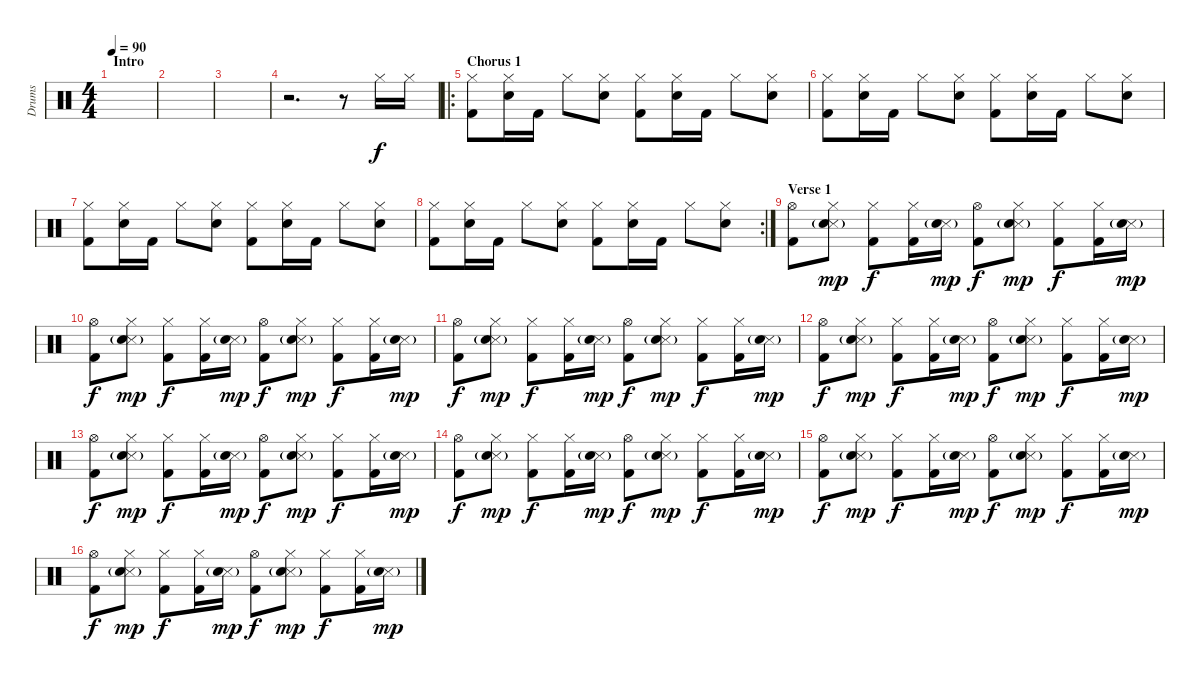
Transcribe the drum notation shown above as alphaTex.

\track ("Drums" "Drums") {instrument percussion}
\staff {score}
\articulation defaults
\ts (4 4)
\section ("" "Intro")
\tempo 90
\clef neutral
\ks c
|
|
|
r.2{d} r.8 "Hi-Hat (closed)".16 "Hi-Hat (closed)".16 |
\ro
\section ("" "Chorus 1")
("Hi-Hat (closed)" "Kick (hit) 2").8 ("Hi-Hat (closed)" "Electric Snare (hit)").16 "Kick (hit) 2".16 "Hi-Hat (closed)".8 ("Hi-Hat (closed)" "Electric Snare (hit)").8 ("Hi-Hat (closed)" "Kick (hit) 2").8 ("Hi-Hat (closed)" "Electric Snare (hit)").16 "Kick (hit) 2".16 "Hi-Hat (closed)".8 ("Hi-Hat (closed)" "Electric Snare (hit)").8 |
("Hi-Hat (closed)" "Kick (hit) 2").8 ("Hi-Hat (closed)" "Electric Snare (hit)").16 "Kick (hit) 2".16 "Hi-Hat (closed)".8 ("Hi-Hat (closed)" "Electric Snare (hit)").8 ("Hi-Hat (closed)" "Kick (hit) 2").8 ("Hi-Hat (closed)" "Electric Snare (hit)").16 "Kick (hit) 2".16 "Hi-Hat (closed)".8 ("Hi-Hat (closed)" "Electric Snare (hit)").8 |
("Hi-Hat (closed)" "Kick (hit) 2").8 ("Hi-Hat (closed)" "Electric Snare (hit)").16 "Kick (hit) 2".16 "Hi-Hat (closed)".8 ("Hi-Hat (closed)" "Electric Snare (hit)").8 ("Hi-Hat (closed)" "Kick (hit) 2").8 ("Hi-Hat (closed)" "Electric Snare (hit)").16 "Kick (hit) 2".16 "Hi-Hat (closed)".8 ("Hi-Hat (closed)" "Electric Snare (hit)").8 |
\rc 2
("Hi-Hat (closed)" "Kick (hit) 2").8 ("Hi-Hat (closed)" "Electric Snare (hit)").16 "Kick (hit) 2".16 "Hi-Hat (closed)".8 ("Hi-Hat (closed)" "Electric Snare (hit)").8 ("Hi-Hat (closed)" "Kick (hit) 2").8 ("Hi-Hat (closed)" "Electric Snare (hit)").16 "Kick (hit) 2".16 "Hi-Hat (closed)".8 ("Hi-Hat (closed)" "Electric Snare (hit)").8 |
\section ("" "Verse 1")
("Hi-Hat (open)" "Kick (hit) 2").8 ("Hi-Hat (closed)" "Snare (side stick) 3" "Electric Snare (hit)"{g}).8{dy mp} ("Hi-Hat (closed)" "Kick (hit) 2").8{dy f} ("Hi-Hat (closed)" "Kick (hit) 2").16 ("Snare (side stick) 3" "Electric Snare (hit)"{g}).16{dy mp} ("Hi-Hat (open)" "Kick (hit) 2").8{dy f} ("Hi-Hat (closed)" "Snare (side stick) 3" "Electric Snare (hit)"{g}).8{dy mp} ("Hi-Hat (closed)" "Kick (hit) 2").8{dy f} ("Hi-Hat (closed)" "Kick (hit) 2").16 ("Snare (side stick) 3" "Electric Snare (hit)"{g}).16{dy mp} |
("Hi-Hat (open)" "Kick (hit) 2").8{dy f} ("Hi-Hat (closed)" "Snare (side stick) 3" "Electric Snare (hit)"{g}).8{dy mp} ("Hi-Hat (closed)" "Kick (hit) 2").8{dy f} ("Hi-Hat (closed)" "Kick (hit) 2").16 ("Snare (side stick) 3" "Electric Snare (hit)"{g}).16{dy mp} ("Hi-Hat (open)" "Kick (hit) 2").8{dy f} ("Hi-Hat (closed)" "Snare (side stick) 3" "Electric Snare (hit)"{g}).8{dy mp} ("Hi-Hat (closed)" "Kick (hit) 2").8{dy f} ("Hi-Hat (closed)" "Kick (hit) 2").16 ("Snare (side stick) 3" "Electric Snare (hit)"{g}).16{dy mp} |
("Hi-Hat (open)" "Kick (hit) 2").8{dy f} ("Hi-Hat (closed)" "Snare (side stick) 3" "Electric Snare (hit)"{g}).8{dy mp} ("Hi-Hat (closed)" "Kick (hit) 2").8{dy f} ("Hi-Hat (closed)" "Kick (hit) 2").16 ("Snare (side stick) 3" "Electric Snare (hit)"{g}).16{dy mp} ("Hi-Hat (open)" "Kick (hit) 2").8{dy f} ("Hi-Hat (closed)" "Snare (side stick) 3" "Electric Snare (hit)"{g}).8{dy mp} ("Hi-Hat (closed)" "Kick (hit) 2").8{dy f} ("Hi-Hat (closed)" "Kick (hit) 2").16 ("Snare (side stick) 3" "Electric Snare (hit)"{g}).16{dy mp} |
("Hi-Hat (open)" "Kick (hit) 2").8{dy f} ("Hi-Hat (closed)" "Snare (side stick) 3" "Electric Snare (hit)"{g}).8{dy mp} ("Hi-Hat (closed)" "Kick (hit) 2").8{dy f} ("Hi-Hat (closed)" "Kick (hit) 2").16 ("Snare (side stick) 3" "Electric Snare (hit)"{g}).16{dy mp} ("Hi-Hat (open)" "Kick (hit) 2").8{dy f} ("Hi-Hat (closed)" "Snare (side stick) 3" "Electric Snare (hit)"{g}).8{dy mp} ("Hi-Hat (closed)" "Kick (hit) 2").8{dy f} ("Hi-Hat (closed)" "Kick (hit) 2").16 ("Snare (side stick) 3" "Electric Snare (hit)"{g}).16{dy mp} |
("Hi-Hat (open)" "Kick (hit) 2").8{dy f} ("Hi-Hat (closed)" "Snare (side stick) 3" "Electric Snare (hit)"{g}).8{dy mp} ("Hi-Hat (closed)" "Kick (hit) 2").8{dy f} ("Hi-Hat (closed)" "Kick (hit) 2").16 ("Snare (side stick) 3" "Electric Snare (hit)"{g}).16{dy mp} ("Hi-Hat (open)" "Kick (hit) 2").8{dy f} ("Hi-Hat (closed)" "Snare (side stick) 3" "Electric Snare (hit)"{g}).8{dy mp} ("Hi-Hat (closed)" "Kick (hit) 2").8{dy f} ("Hi-Hat (closed)" "Kick (hit) 2").16 ("Snare (side stick) 3" "Electric Snare (hit)"{g}).16{dy mp} |
("Hi-Hat (open)" "Kick (hit) 2").8{dy f} ("Hi-Hat (closed)" "Snare (side stick) 3" "Electric Snare (hit)"{g}).8{dy mp} ("Hi-Hat (closed)" "Kick (hit) 2").8{dy f} ("Hi-Hat (closed)" "Kick (hit) 2").16 ("Snare (side stick) 3" "Electric Snare (hit)"{g}).16{dy mp} ("Hi-Hat (open)" "Kick (hit) 2").8{dy f} ("Hi-Hat (closed)" "Snare (side stick) 3" "Electric Snare (hit)"{g}).8{dy mp} ("Hi-Hat (closed)" "Kick (hit) 2").8{dy f} ("Hi-Hat (closed)" "Kick (hit) 2").16 ("Snare (side stick) 3" "Electric Snare (hit)"{g}).16{dy mp} |
("Hi-Hat (open)" "Kick (hit) 2").8{dy f} ("Hi-Hat (closed)" "Snare (side stick) 3" "Electric Snare (hit)"{g}).8{dy mp} ("Hi-Hat (closed)" "Kick (hit) 2").8{dy f} ("Hi-Hat (closed)" "Kick (hit) 2").16 ("Snare (side stick) 3" "Electric Snare (hit)"{g}).16{dy mp} ("Hi-Hat (open)" "Kick (hit) 2").8{dy f} ("Hi-Hat (closed)" "Snare (side stick) 3" "Electric Snare (hit)"{g}).8{dy mp} ("Hi-Hat (closed)" "Kick (hit) 2").8{dy f} ("Hi-Hat (closed)" "Kick (hit) 2").16 ("Snare (side stick) 3" "Electric Snare (hit)"{g}).16{dy mp} |
("Hi-Hat (open)" "Kick (hit) 2").8{dy f} ("Hi-Hat (closed)" "Snare (side stick) 3" "Electric Snare (hit)"{g}).8{dy mp} ("Hi-Hat (closed)" "Kick (hit) 2").8{dy f} ("Hi-Hat (closed)" "Kick (hit) 2").16 ("Snare (side stick) 3" "Electric Snare (hit)"{g}).16{dy mp} ("Hi-Hat (open)" "Kick (hit) 2").8{dy f} ("Hi-Hat (closed)" "Snare (side stick) 3" "Electric Snare (hit)"{g}).8{dy mp} ("Hi-Hat (closed)" "Kick (hit) 2").8{dy f} ("Hi-Hat (closed)" "Kick (hit) 2").16 ("Snare (side stick) 3" "Electric Snare (hit)"{g}).16{dy mp}
